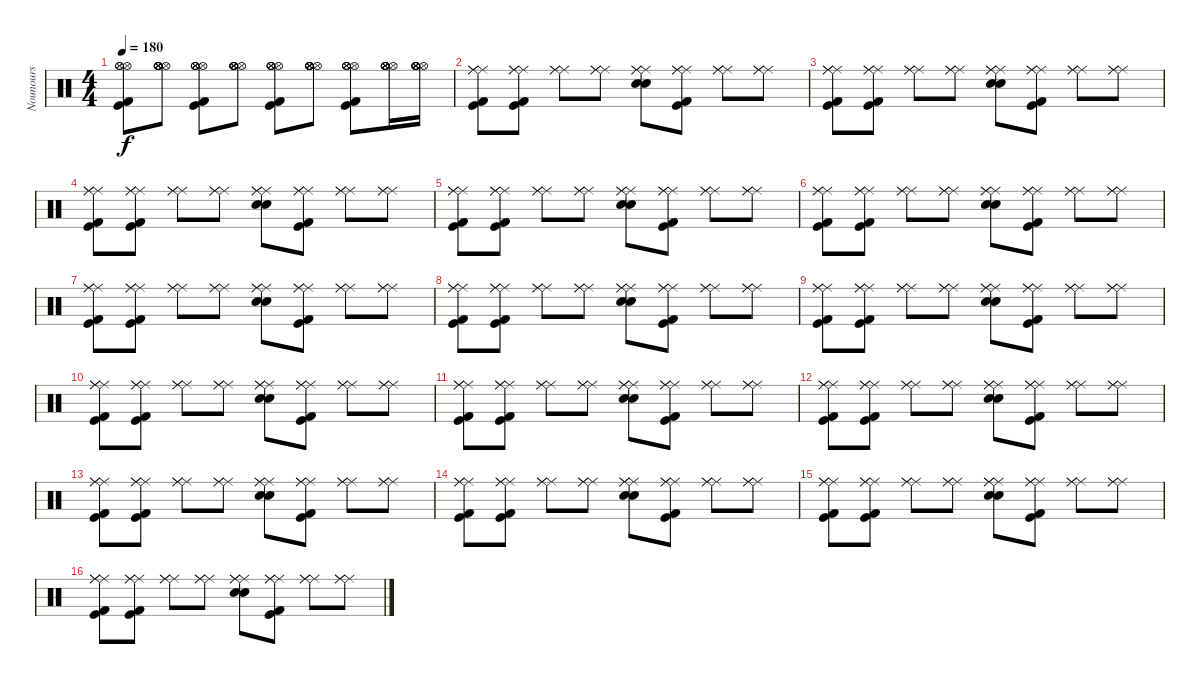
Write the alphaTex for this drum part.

\track ("Nounours" "Nounours") {instrument percussion}
\staff {score}
\articulation defaults
\ts (4 4)
\tempo 180
\clef neutral
\ks c
("Hi-Hat (open)" "Hi-Hat (open)" "Hi-Hat (open)" "Kick (hit) 2" "Kick (hit)").8{dy f} ("Hi-Hat (open)" "Hi-Hat (open)" "Hi-Hat (open)" "Hi-Hat (open)" "Hi-Hat (open)" "Hi-Hat (open)").8 ("Hi-Hat (open)" "Hi-Hat (open)" "Hi-Hat (open)" "Hi-Hat (open)" "Kick (hit) 2" "Kick (hit)").8 ("Hi-Hat (open)" "Hi-Hat (open)" "Hi-Hat (open)" "Hi-Hat (open)" "Hi-Hat (open)" "Hi-Hat (open)").8 ("Hi-Hat (open)" "Hi-Hat (open)" "Hi-Hat (open)" "Hi-Hat (open)" "Kick (hit)" "Kick (hit) 2").8 ("Hi-Hat (open)" "Hi-Hat (open)" "Hi-Hat (open)" "Hi-Hat (open)" "Hi-Hat (open)" "Hi-Hat (open)").8 ("Hi-Hat (open)" "Hi-Hat (open)" "Hi-Hat (open)" "Hi-Hat (open)" "Kick (hit) 2" "Kick (hit)").8 ("Hi-Hat (open)" "Hi-Hat (open)" "Hi-Hat (open)" "Hi-Hat (open)" "Hi-Hat (open)" "Hi-Hat (open)").16 ("Hi-Hat (open)" "Hi-Hat (open)" "Hi-Hat (open)" "Hi-Hat (open)" "Hi-Hat (open)" "Hi-Hat (open)").16 |
("Ride (middle)" "Ride (middle)" "Ride (middle)" "Kick (hit) 2" "Kick (hit)").8 ("Ride (middle)" "Ride (middle)" "Ride (middle)" "Kick (hit) 2" "Kick (hit)").8 ("Ride (middle)" "Ride (middle)" "Ride (middle)").8 ("Ride (middle)" "Ride (middle)" "Ride (middle)").8 ("Ride (middle)" "Ride (middle)" "Ride (middle)" "Electric Snare (hit)" "Snare (hit) 2").8 ("Ride (middle)" "Ride (middle)" "Kick (hit)" "Kick (hit) 2" "Ride (middle)").8 ("Ride (middle)" "Ride (middle)" "Ride (middle)").8 ("Ride (middle)" "Ride (middle)" "Ride (middle)").8 |
("Ride (middle)" "Ride (middle)" "Ride (middle)" "Kick (hit) 2" "Kick (hit)").8 ("Ride (middle)" "Ride (middle)" "Ride (middle)" "Kick (hit) 2" "Kick (hit)").8 ("Ride (middle)" "Ride (middle)" "Ride (middle)").8 ("Ride (middle)" "Ride (middle)" "Ride (middle)").8 ("Ride (middle)" "Ride (middle)" "Ride (middle)" "Electric Snare (hit)" "Snare (hit) 2").8 ("Ride (middle)" "Ride (middle)" "Kick (hit)" "Kick (hit) 2" "Ride (middle)").8 ("Ride (middle)" "Ride (middle)" "Ride (middle)").8 ("Ride (middle)" "Ride (middle)" "Ride (middle)").8 |
("Ride (middle)" "Ride (middle)" "Ride (middle)" "Kick (hit) 2" "Kick (hit)").8 ("Ride (middle)" "Ride (middle)" "Ride (middle)" "Kick (hit) 2" "Kick (hit)").8 ("Ride (middle)" "Ride (middle)" "Ride (middle)").8 ("Ride (middle)" "Ride (middle)" "Ride (middle)").8 ("Ride (middle)" "Ride (middle)" "Ride (middle)" "Electric Snare (hit)" "Snare (hit) 2").8 ("Ride (middle)" "Ride (middle)" "Kick (hit)" "Kick (hit) 2" "Ride (middle)").8 ("Ride (middle)" "Ride (middle)" "Ride (middle)").8 ("Ride (middle)" "Ride (middle)" "Ride (middle)").8 |
("Ride (middle)" "Ride (middle)" "Ride (middle)" "Kick (hit) 2" "Kick (hit)").8 ("Ride (middle)" "Ride (middle)" "Ride (middle)" "Kick (hit) 2" "Kick (hit)").8 ("Ride (middle)" "Ride (middle)" "Ride (middle)").8 ("Ride (middle)" "Ride (middle)" "Ride (middle)").8 ("Ride (middle)" "Ride (middle)" "Ride (middle)" "Electric Snare (hit)" "Snare (hit) 2").8 ("Ride (middle)" "Ride (middle)" "Kick (hit)" "Kick (hit) 2" "Ride (middle)").8 ("Ride (middle)" "Ride (middle)" "Ride (middle)").8 ("Ride (middle)" "Ride (middle)" "Ride (middle)").8 |
("Ride (middle)" "Ride (middle)" "Ride (middle)" "Kick (hit) 2" "Kick (hit)").8 ("Ride (middle)" "Ride (middle)" "Ride (middle)" "Kick (hit) 2" "Kick (hit)").8 ("Ride (middle)" "Ride (middle)" "Ride (middle)").8 ("Ride (middle)" "Ride (middle)" "Ride (middle)").8 ("Ride (middle)" "Ride (middle)" "Ride (middle)" "Electric Snare (hit)" "Snare (hit) 2").8 ("Ride (middle)" "Ride (middle)" "Kick (hit)" "Kick (hit) 2" "Ride (middle)").8 ("Ride (middle)" "Ride (middle)" "Ride (middle)").8 ("Ride (middle)" "Ride (middle)" "Ride (middle)").8 |
("Ride (middle)" "Ride (middle)" "Ride (middle)" "Kick (hit) 2" "Kick (hit)").8 ("Ride (middle)" "Ride (middle)" "Ride (middle)" "Kick (hit) 2" "Kick (hit)").8 ("Ride (middle)" "Ride (middle)" "Ride (middle)").8 ("Ride (middle)" "Ride (middle)" "Ride (middle)").8 ("Ride (middle)" "Ride (middle)" "Ride (middle)" "Electric Snare (hit)" "Snare (hit) 2").8 ("Ride (middle)" "Ride (middle)" "Kick (hit)" "Kick (hit) 2" "Ride (middle)").8 ("Ride (middle)" "Ride (middle)" "Ride (middle)").8 ("Ride (middle)" "Ride (middle)" "Ride (middle)").8 |
("Ride (middle)" "Ride (middle)" "Ride (middle)" "Kick (hit) 2" "Kick (hit)").8 ("Ride (middle)" "Ride (middle)" "Ride (middle)" "Kick (hit) 2" "Kick (hit)").8 ("Ride (middle)" "Ride (middle)" "Ride (middle)").8 ("Ride (middle)" "Ride (middle)" "Ride (middle)").8 ("Ride (middle)" "Ride (middle)" "Ride (middle)" "Electric Snare (hit)" "Snare (hit) 2").8 ("Ride (middle)" "Ride (middle)" "Kick (hit)" "Kick (hit) 2" "Ride (middle)").8 ("Ride (middle)" "Ride (middle)" "Ride (middle)").8 ("Ride (middle)" "Ride (middle)" "Ride (middle)").8 |
("Ride (middle)" "Ride (middle)" "Ride (middle)" "Kick (hit) 2" "Kick (hit)").8 ("Ride (middle)" "Ride (middle)" "Ride (middle)" "Kick (hit) 2" "Kick (hit)").8 ("Ride (middle)" "Ride (middle)" "Ride (middle)").8 ("Ride (middle)" "Ride (middle)" "Ride (middle)").8 ("Ride (middle)" "Ride (middle)" "Ride (middle)" "Electric Snare (hit)" "Snare (hit) 2").8 ("Ride (middle)" "Ride (middle)" "Kick (hit)" "Kick (hit) 2" "Ride (middle)").8 ("Ride (middle)" "Ride (middle)" "Ride (middle)").8 ("Ride (middle)" "Ride (middle)" "Ride (middle)").8 |
("Ride (middle)" "Ride (middle)" "Ride (middle)" "Kick (hit) 2" "Kick (hit)").8 ("Ride (middle)" "Ride (middle)" "Ride (middle)" "Kick (hit) 2" "Kick (hit)").8 ("Ride (middle)" "Ride (middle)" "Ride (middle)").8 ("Ride (middle)" "Ride (middle)" "Ride (middle)").8 ("Ride (middle)" "Ride (middle)" "Ride (middle)" "Electric Snare (hit)" "Snare (hit) 2").8 ("Ride (middle)" "Ride (middle)" "Kick (hit)" "Kick (hit) 2" "Ride (middle)").8 ("Ride (middle)" "Ride (middle)" "Ride (middle)").8 ("Ride (middle)" "Ride (middle)" "Ride (middle)").8 |
("Ride (middle)" "Ride (middle)" "Ride (middle)" "Kick (hit) 2" "Kick (hit)").8 ("Ride (middle)" "Ride (middle)" "Ride (middle)" "Kick (hit) 2" "Kick (hit)").8 ("Ride (middle)" "Ride (middle)" "Ride (middle)").8 ("Ride (middle)" "Ride (middle)" "Ride (middle)").8 ("Ride (middle)" "Ride (middle)" "Ride (middle)" "Electric Snare (hit)" "Snare (hit) 2").8 ("Ride (middle)" "Ride (middle)" "Kick (hit)" "Kick (hit) 2" "Ride (middle)").8 ("Ride (middle)" "Ride (middle)" "Ride (middle)").8 ("Ride (middle)" "Ride (middle)" "Ride (middle)").8 |
("Ride (middle)" "Ride (middle)" "Ride (middle)" "Kick (hit) 2" "Kick (hit)").8 ("Ride (middle)" "Ride (middle)" "Ride (middle)" "Kick (hit) 2" "Kick (hit)").8 ("Ride (middle)" "Ride (middle)" "Ride (middle)").8 ("Ride (middle)" "Ride (middle)" "Ride (middle)").8 ("Ride (middle)" "Ride (middle)" "Ride (middle)" "Electric Snare (hit)" "Snare (hit) 2").8 ("Ride (middle)" "Ride (middle)" "Kick (hit)" "Kick (hit) 2" "Ride (middle)").8 ("Ride (middle)" "Ride (middle)" "Ride (middle)").8 ("Ride (middle)" "Ride (middle)" "Ride (middle)").8 |
("Ride (middle)" "Ride (middle)" "Ride (middle)" "Kick (hit) 2" "Kick (hit)").8 ("Ride (middle)" "Ride (middle)" "Ride (middle)" "Kick (hit) 2" "Kick (hit)").8 ("Ride (middle)" "Ride (middle)" "Ride (middle)").8 ("Ride (middle)" "Ride (middle)" "Ride (middle)").8 ("Ride (middle)" "Ride (middle)" "Ride (middle)" "Electric Snare (hit)" "Snare (hit) 2").8 ("Ride (middle)" "Ride (middle)" "Kick (hit)" "Kick (hit) 2" "Ride (middle)").8 ("Ride (middle)" "Ride (middle)" "Ride (middle)").8 ("Ride (middle)" "Ride (middle)" "Ride (middle)").8 |
("Ride (middle)" "Ride (middle)" "Ride (middle)" "Kick (hit) 2" "Kick (hit)").8 ("Ride (middle)" "Ride (middle)" "Ride (middle)" "Kick (hit) 2" "Kick (hit)").8 ("Ride (middle)" "Ride (middle)" "Ride (middle)").8 ("Ride (middle)" "Ride (middle)" "Ride (middle)").8 ("Ride (middle)" "Ride (middle)" "Ride (middle)" "Electric Snare (hit)" "Snare (hit) 2").8 ("Ride (middle)" "Ride (middle)" "Kick (hit)" "Kick (hit) 2" "Ride (middle)").8 ("Ride (middle)" "Ride (middle)" "Ride (middle)").8 ("Ride (middle)" "Ride (middle)" "Ride (middle)").8 |
("Ride (middle)" "Ride (middle)" "Ride (middle)" "Kick (hit) 2" "Kick (hit)").8 ("Ride (middle)" "Ride (middle)" "Ride (middle)" "Kick (hit) 2" "Kick (hit)").8 ("Ride (middle)" "Ride (middle)" "Ride (middle)").8 ("Ride (middle)" "Ride (middle)" "Ride (middle)").8 ("Ride (middle)" "Ride (middle)" "Ride (middle)" "Electric Snare (hit)" "Snare (hit) 2").8 ("Ride (middle)" "Ride (middle)" "Kick (hit)" "Kick (hit) 2" "Ride (middle)").8 ("Ride (middle)" "Ride (middle)" "Ride (middle)").8 ("Ride (middle)" "Ride (middle)" "Ride (middle)").8 |
("Ride (middle)" "Ride (middle)" "Ride (middle)" "Kick (hit) 2" "Kick (hit)").8 ("Ride (middle)" "Ride (middle)" "Ride (middle)" "Kick (hit) 2" "Kick (hit)").8 ("Ride (middle)" "Ride (middle)" "Ride (middle)").8 ("Ride (middle)" "Ride (middle)" "Ride (middle)").8 ("Ride (middle)" "Ride (middle)" "Ride (middle)" "Electric Snare (hit)" "Snare (hit) 2").8 ("Ride (middle)" "Ride (middle)" "Kick (hit)" "Kick (hit) 2" "Ride (middle)").8 ("Ride (middle)" "Ride (middle)" "Ride (middle)").8 ("Ride (middle)" "Ride (middle)" "Ride (middle)").8
